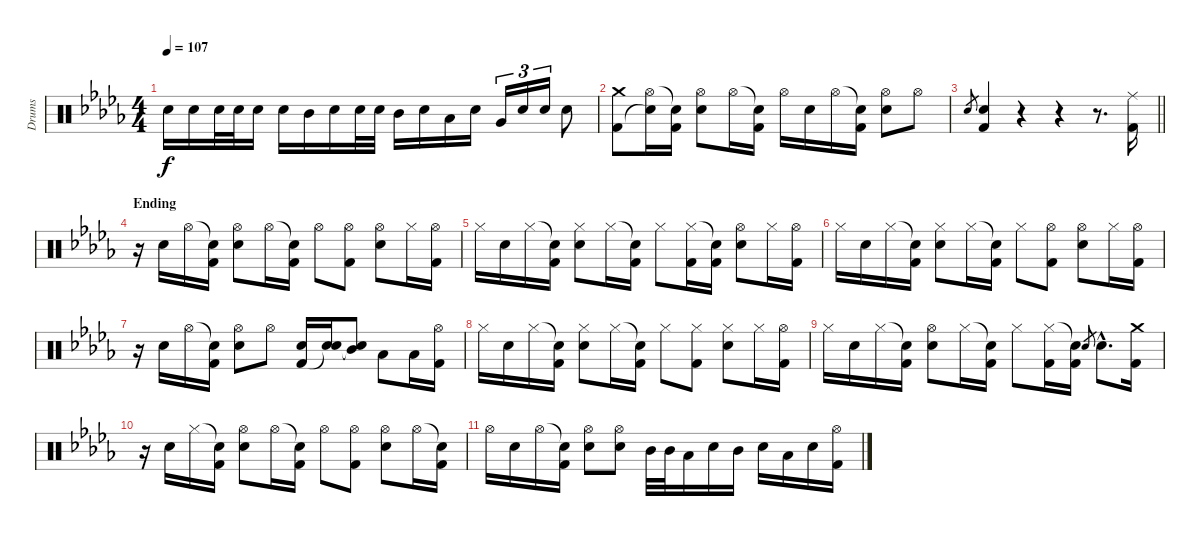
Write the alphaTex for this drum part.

\track ("Drums" "Drums") {instrument percussion}
\staff {score}
\articulation defaults
\ts (4 4)
\tempo 107
\clef neutral
\ks bbminor "Electric Snare (hit)".16{dy f} "Electric Snare (hit)".16 "Electric Snare (hit)".32 "Electric Snare (hit)".32 "Electric Snare (hit)".16 "Electric Snare (hit)".16 "Mid Tom (hit)".16 "Electric Snare (hit)".16 "Electric Snare (hit)".32 "Electric Snare (hit)".32 "Mid Tom (hit)".16 "Electric Snare (hit)".16 "Low Tom (hit)".16 "Electric Snare (hit)".16 "Very Low Tom (hit)".16{tu (3 2)} "Electric Snare (hit)".16{tu (3 2)} "Electric Snare (hit)".16{tu (3 2)} "Electric Snare (hit)".8
|
("Crash medium (hit)" "Kick (hit) 2").8 ("Hi-Hat (open)" "Snare (hit)"{t}).16 ("Snare (hit)"{t} "Kick (hit) 2").16 ("Hi-Hat (open)" "Electric Snare (hit)").8 "Hi-Hat (open)".16 ("Snare (hit)"{t} "Kick (hit) 2").16 "Hi-Hat (open)".16 "Electric Snare (hit)".16 "Hi-Hat (open)".16 ("Snare (hit)"{t} "Kick (hit) 2").16 ("Hi-Hat (open)" "Electric Snare (hit)").8 "Hi-Hat (open)".8 |
\barLineRight lightlight "Electric Snare (hit)".8{gr}
("Electric Snare (hit)" "Kick (hit) 2").4 r.4 r.4 r.8{d} ("Ride (middle)" "Kick (hit) 2").16 |
\section ("" "Ending")
r.16 "Electric Snare (hit)".16 "Hi-Hat (open)".16 ("Snare (hit)"{t} "Kick (hit) 2").16 ("Hi-Hat (open)" "Electric Snare (hit)").8 "Hi-Hat (open)".16 ("Snare (hit)"{t} "Kick (hit) 2").16 "Hi-Hat (open)".8 ("Hi-Hat (open)" "Kick (hit) 2").8 ("Hi-Hat (open)" "Electric Snare (hit)").8 "Hi-Hat (closed)".16 ("Hi-Hat (open)" "Kick (hit) 2").16 |
"Hi-Hat (closed)".16 "Electric Snare (hit)".16 "Hi-Hat (closed)".16 ("Snare (hit)"{t} "Kick (hit) 2").16 ("Hi-Hat (closed)" "Electric Snare (hit)").8 "Hi-Hat (closed)".16 ("Snare (hit)"{t} "Kick (hit) 2").16 "Hi-Hat (closed)".8 ("Hi-Hat (closed)" "Kick (hit) 2").16 ("Snare (hit)"{t} "Kick (hit) 2").16 ("Hi-Hat (open)" "Electric Snare (hit)").8 "Hi-Hat (closed)".16 ("Hi-Hat (open)" "Kick (hit) 2").16 |
"Hi-Hat (closed)".16 "Electric Snare (hit)".16 "Hi-Hat (closed)".16 ("Snare (hit)"{t} "Kick (hit) 2").16 ("Hi-Hat (closed)" "Electric Snare (hit)").8 "Hi-Hat (closed)".16 ("Snare (hit)"{t} "Kick (hit) 2").16 "Hi-Hat (closed)".8 ("Hi-Hat (open)" "Kick (hit) 2").8 ("Hi-Hat (open)" "Electric Snare (hit)").8 "Hi-Hat (closed)".16 ("Hi-Hat (open)" "Kick (hit) 2").16 |
r.16 "Electric Snare (hit)".16 "Hi-Hat (open)".16 ("Snare (hit)"{t} "Kick (hit) 2").16 ("Hi-Hat (open)" "Electric Snare (hit)").8 "Hi-Hat (open)".8 ("Electric Snare (hit)" "Kick (hit) 2").16 ("Electric Snare (hit)" "Snare (hit)"{t}).16 ("Mid Tom (hit)" "Snare (hit)"{t}).8 "Low Floor Tom (hit)".8 "Low Floor Tom (hit)".16 ("Hi-Hat (open)" "Kick (hit) 2").16 |
"Hi-Hat (closed)".16 "Electric Snare (hit)".16 "Hi-Hat (closed)".16 ("Snare (hit)"{t} "Kick (hit) 2").16 ("Hi-Hat (closed)" "Electric Snare (hit)").8 "Hi-Hat (closed)".16 ("Snare (hit)"{t} "Kick (hit) 2").16 "Hi-Hat (closed)".8 ("Hi-Hat (closed)" "Kick (hit) 2").8 ("Hi-Hat (closed)" "Electric Snare (hit)").8 "Hi-Hat (closed)".16 ("Hi-Hat (open)" "Kick (hit) 2").16 |
"Hi-Hat (closed)".16 "Electric Snare (hit)".16 "Hi-Hat (closed)".16 ("Snare (hit)"{t} "Kick (hit) 2").16 ("Hi-Hat (open)" "Electric Snare (hit)").8 "Hi-Hat (closed)".16 ("Snare (hit)"{t} "Kick (hit) 2").16 "Hi-Hat (closed)".8 ("Hi-Hat (closed)" "Kick (hit) 2").16 ("Snare (hit)"{t} "Kick (hit) 2").16 "Electric Snare (hit)".8{gr} "Electric Snare (hit)"{hac}.8{d} ("Crash medium (hit)" "Kick (hit) 2").16 |
r.16 "Electric Snare (hit)".16 "Hi-Hat (closed)".16 ("Snare (hit)"{t} "Kick (hit) 2").16 ("Hi-Hat (open)" "Electric Snare (hit)").8 "Hi-Hat (open)".16 ("Snare (hit)"{t} "Kick (hit) 2").16 "Hi-Hat (open)".8 ("Hi-Hat (open)" "Kick (hit) 2").8 ("Hi-Hat (open)" "Electric Snare (hit)").8 "Hi-Hat (open)".16 ("Snare (hit)"{t} "Kick (hit) 2").16 |
"Hi-Hat (open)".16 "Electric Snare (hit)".16 "Hi-Hat (open)".16 ("Snare (hit)"{t} "Kick (hit) 2").16 ("Hi-Hat (open)" "Electric Snare (hit)").8 ("Hi-Hat (open)" "Electric Snare (hit)").8 "Mid Tom (hit)".32 "Mid Tom (hit)".32 "Low Floor Tom (hit)".16 "Electric Snare (hit)".16 "Mid Tom (hit)".16 "Electric Snare (hit)".16 "Low Floor Tom (hit)".16 "Electric Snare (hit)".16 ("Hi-Hat (open)" "Kick (hit) 2").16
